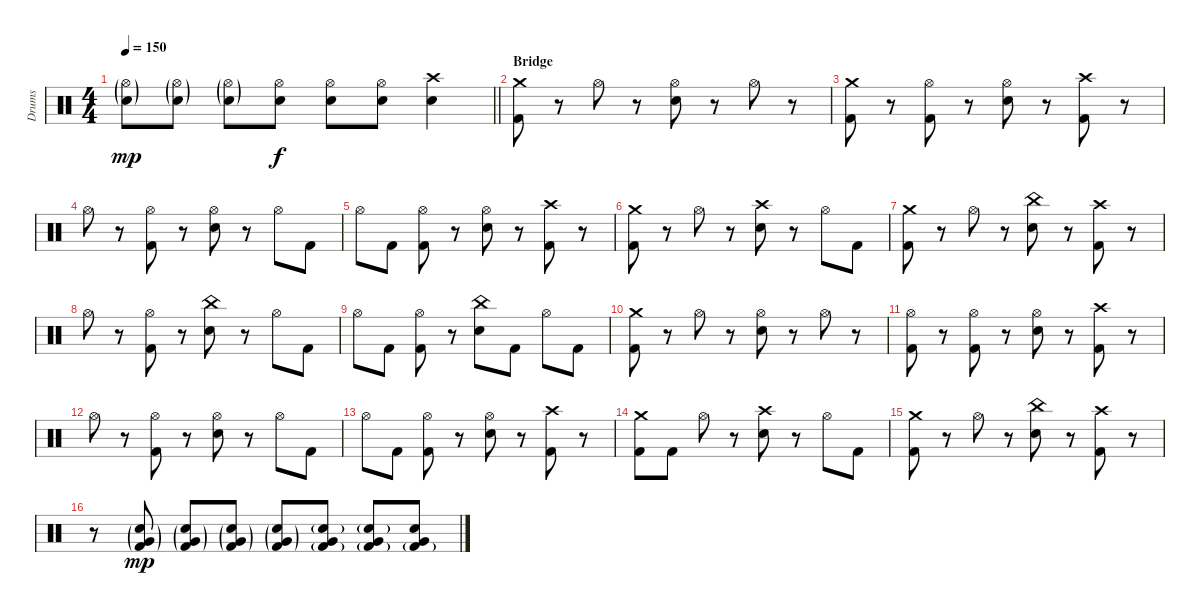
\track ("Drums" "Drums") {instrument percussion}
\staff {score}
\articulation defaults
\ts (4 4)
\tempo 150
\clef neutral
\barLineRight lightlight
\ks c
("Hi-Hat (open)"{g} "Electric Snare (hit)"{g}).8{dy mp} ("Hi-Hat (open)"{g} "Electric Snare (hit)"{g}).8 ("Hi-Hat (open)"{g} "Electric Snare (hit)"{g}).8 ("Hi-Hat (open)" "Electric Snare (hit)").8{dy f} ("Hi-Hat (open)" "Electric Snare (hit)").8 ("Hi-Hat (open)" "Electric Snare (hit)").8 ("Crash high (hit)" "Electric Snare (hit)").4 |
\section ("" "Bridge")
("Crash medium (hit)" "Kick (hit) 2").8 r.8 "Hi-Hat (open)".8 r.8 ("Hi-Hat (open)" "Electric Snare (hit)").8 r.8 "Hi-Hat (open)".8 r.8 |
("Crash medium (hit)" "Kick (hit) 2").8 r.8 ("Hi-Hat (open)" "Kick (hit) 2").8 r.8 ("Hi-Hat (open)" "Electric Snare (hit)").8 r.8 ("Crash high (hit)" "Kick (hit) 2").8 r.8 |
"Hi-Hat (open)".8 r.8 ("Hi-Hat (open)" "Kick (hit) 2").8 r.8 ("Hi-Hat (open)" "Electric Snare (hit)").8 r.8 "Hi-Hat (open)".8 "Kick (hit) 2".8 |
"Hi-Hat (open)".8 "Kick (hit) 2".8 ("Hi-Hat (open)" "Kick (hit) 2").8 r.8 ("Hi-Hat (open)" "Electric Snare (hit)").8 r.8 ("Crash high (hit)" "Kick (hit) 2").8 r.8 |
("Crash medium (hit)" "Kick (hit) 2").8 r.8 "Hi-Hat (open)".8 r.8 ("Crash high (hit)" "Electric Snare (hit)").8 r.8 "Hi-Hat (open)".8 "Kick (hit) 2".8 |
("Crash medium (hit)" "Kick (hit) 2").8 r.8 "Hi-Hat (open)".8 r.8 ("China (hit)" "Electric Snare (hit)").8 r.8 ("Crash high (hit)" "Kick (hit) 2").8 r.8 |
"Hi-Hat (open)".8 r.8 ("Hi-Hat (open)" "Kick (hit) 2").8 r.8 ("China (hit)" "Electric Snare (hit)").8 r.8 "Hi-Hat (open)".8 "Kick (hit) 2".8 |
"Hi-Hat (open)".8 "Kick (hit) 2".8 ("Hi-Hat (open)" "Kick (hit) 2").8 r.8 ("China (hit)" "Electric Snare (hit)").8 "Kick (hit) 2".8 "Hi-Hat (open)".8 "Kick (hit) 2".8 |
("Crash medium (hit)" "Kick (hit) 2").8 r.8 "Hi-Hat (open)".8 r.8 ("Hi-Hat (open)" "Electric Snare (hit)").8 r.8 "Hi-Hat (open)".8 r.8 |
("Hi-Hat (open)" "Kick (hit) 2").8 r.8 ("Hi-Hat (open)" "Kick (hit) 2").8 r.8 ("Hi-Hat (open)" "Electric Snare (hit)").8 r.8 ("Crash high (hit)" "Kick (hit) 2").8 r.8 |
"Hi-Hat (open)".8 r.8 ("Hi-Hat (open)" "Kick (hit) 2").8 r.8 ("Hi-Hat (open)" "Electric Snare (hit)").8 r.8 "Hi-Hat (open)".8 "Kick (hit) 2".8 |
"Hi-Hat (open)".8 "Kick (hit) 2".8 ("Hi-Hat (open)" "Kick (hit) 2").8 r.8 ("Hi-Hat (open)" "Electric Snare (hit)").8 r.8 ("Crash high (hit)" "Kick (hit) 2").8 r.8 |
("Crash medium (hit)" "Kick (hit) 2").8 "Kick (hit) 2".8 "Hi-Hat (open)".8 r.8 ("Crash high (hit)" "Electric Snare (hit)").8 r.8 "Hi-Hat (open)".8 "Kick (hit) 2".8 |
("Crash medium (hit)" "Kick (hit) 2").8 r.8 "Hi-Hat (open)".8 r.8 ("China (hit)" "Electric Snare (hit)").8 r.8 ("Crash high (hit)" "Kick (hit) 2").8 r.8 |
r.8 ("Electric Snare (hit)"{g} "Very Low Tom (hit)"{g} "Kick (hit) 2"{g}).8{dy mp} ("Electric Snare (hit)"{g} "Very Low Tom (hit)"{g} "Kick (hit) 2"{g}).8 ("Electric Snare (hit)"{g} "Very Low Tom (hit)"{g} "Kick (hit) 2"{g}).8 ("Electric Snare (hit)"{g} "Very Low Tom (hit)"{g} "Kick (hit) 2"{g}).8 ("Electric Snare (hit)"{g} "Very Low Tom (hit)" "Kick (hit) 2"{g}).8 ("Electric Snare (hit)"{g} "Very Low Tom (hit)" "Kick (hit) 2"{g}).8 ("Electric Snare (hit)" "Very Low Tom (hit)" "Kick (hit) 2"{g}).8
